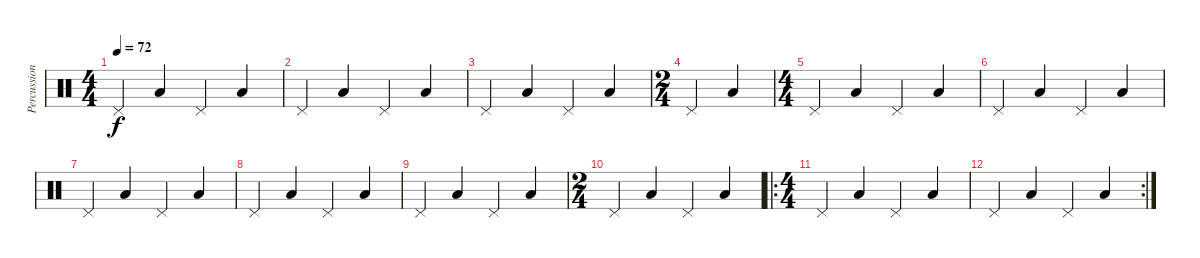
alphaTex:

\track ("Percussions" "Percussion") {instrument percussion}
\staff {score}
\articulation defaults
\ts (4 4)
\tempo 72
\clef neutral
\ks c "Pedal Hi-Hat (hit)".4{dy f} "Low Tom (hit)".4 "Pedal Hi-Hat (hit)".4 "Low Tom (hit)".4
|
"Pedal Hi-Hat (hit)".4 "Low Tom (hit)".4 "Pedal Hi-Hat (hit)".4 "Low Tom (hit)".4 |
"Pedal Hi-Hat (hit)".4 "Low Tom (hit)".4 "Pedal Hi-Hat (hit)".4 "Low Tom (hit)".4 |
\ts (2 4)
"Pedal Hi-Hat (hit)".4 "Low Tom (hit)".4 |
\ts (4 4)
"Pedal Hi-Hat (hit)".4 "Low Tom (hit)".4 "Pedal Hi-Hat (hit)".4 "Low Tom (hit)".4 |
"Pedal Hi-Hat (hit)".4 "Low Tom (hit)".4 "Pedal Hi-Hat (hit)".4 "Low Tom (hit)".4 |
"Pedal Hi-Hat (hit)".4 "Low Tom (hit)".4 "Pedal Hi-Hat (hit)".4 "Low Tom (hit)".4 |
"Pedal Hi-Hat (hit)".4 "Low Tom (hit)".4 "Pedal Hi-Hat (hit)".4 "Low Tom (hit)".4 |
"Pedal Hi-Hat (hit)".4 "Low Tom (hit)".4 "Pedal Hi-Hat (hit)".4 "Low Tom (hit)".4 |
\ts (2 4)
"Pedal Hi-Hat (hit)".4 "Low Tom (hit)".4 "Pedal Hi-Hat (hit)".4 "Low Tom (hit)".4 |
\ro
\ts (4 4)
"Pedal Hi-Hat (hit)".4 "Low Tom (hit)".4 "Pedal Hi-Hat (hit)".4 "Low Tom (hit)".4 |
\rc 2 "Pedal Hi-Hat (hit)".4 "Low Tom (hit)".4 "Pedal Hi-Hat (hit)".4 "Low Tom (hit)".4
